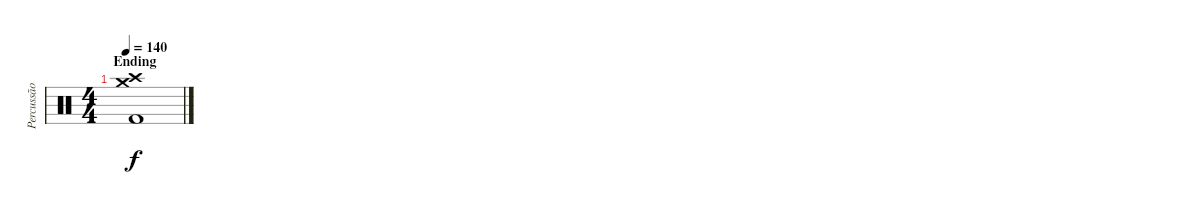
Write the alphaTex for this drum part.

\track ("Percussão (Lucas)" "Percussão ") {instrument percussion}
\staff {score}
\articulation defaults
\ts (4 4)
\section ("" "Ending")
\tempo 140
\clef neutral
\ks c
("Crash high (hit)" "Crash medium (hit)" "Kick (hit) 2").1{dy f}
